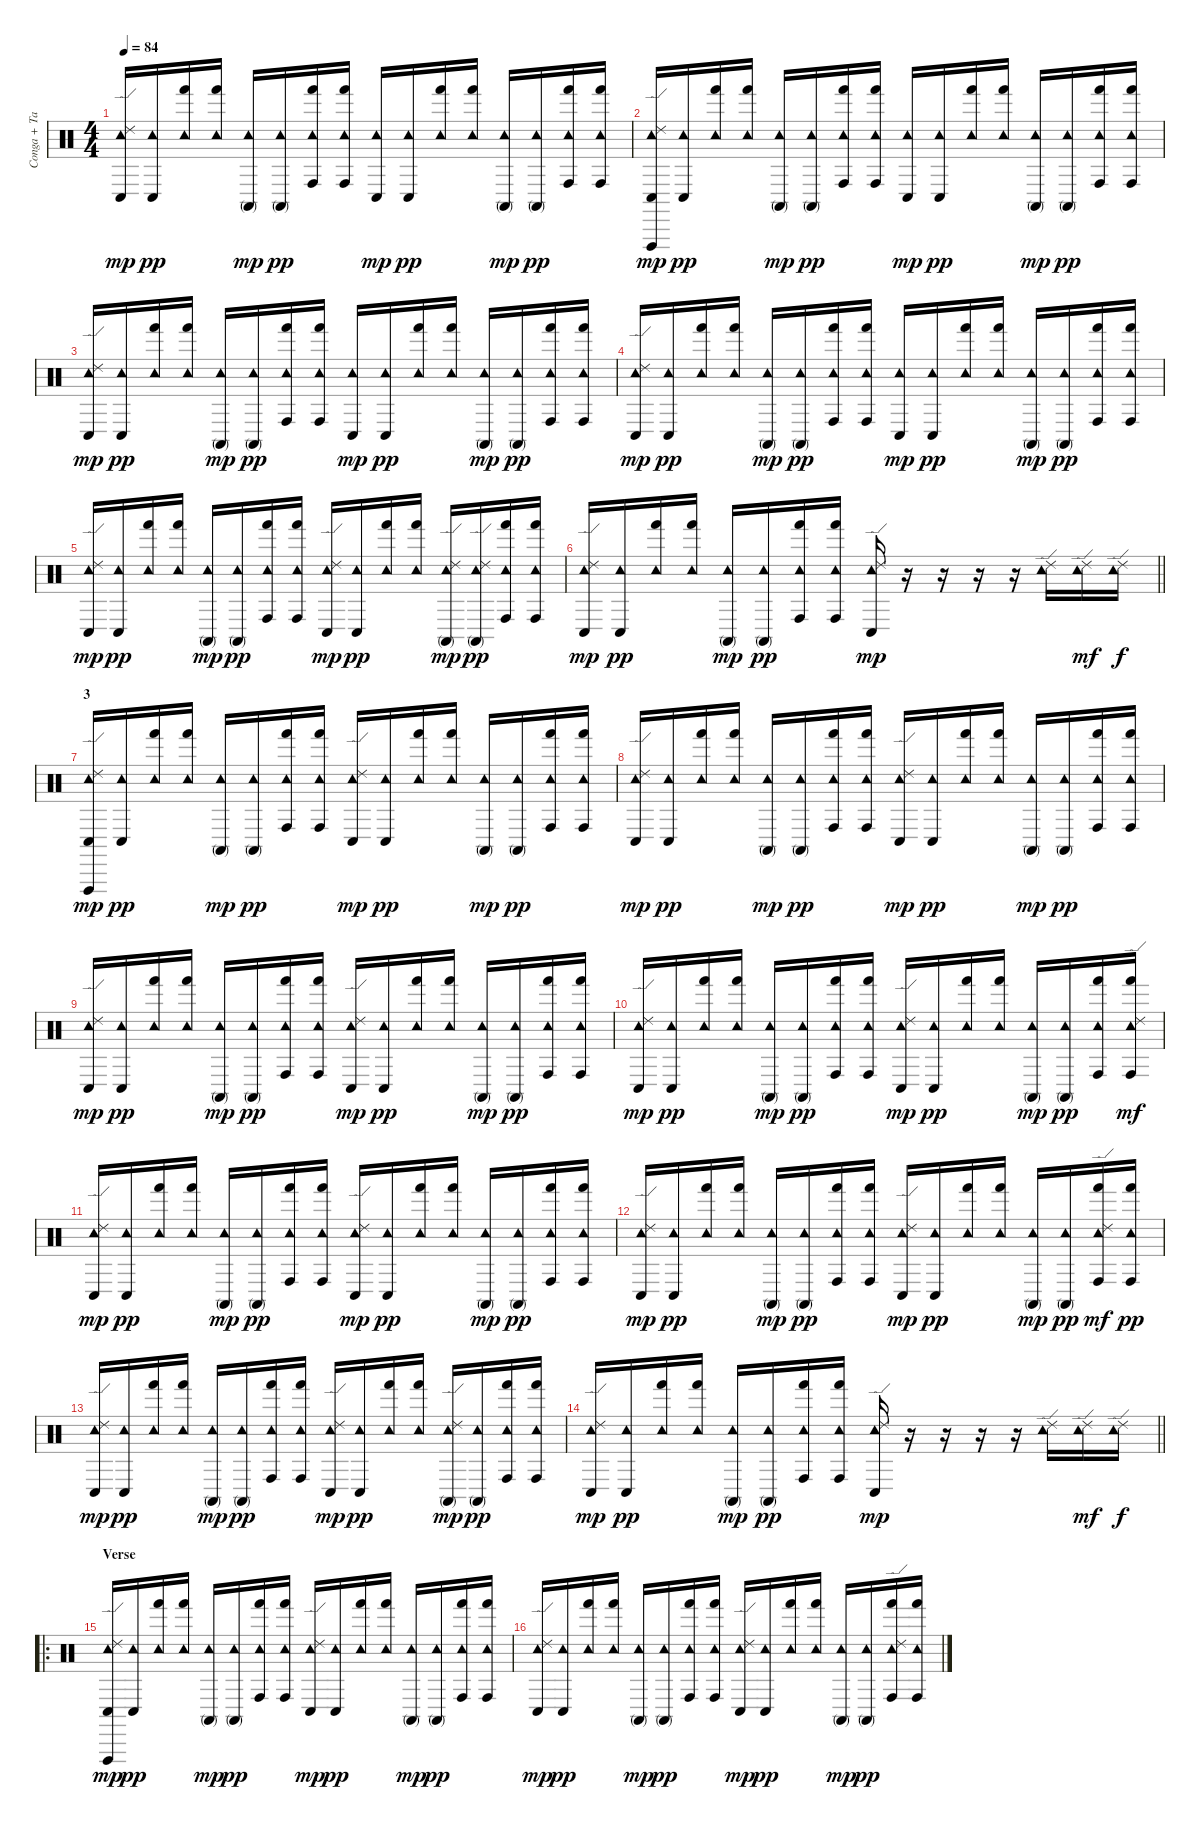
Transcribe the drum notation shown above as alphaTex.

\track ("Conga + Tambourine" "Conga + Ta") {instrument percussion}
\staff {score}
\articulation defaults
\ts (4 4)
\tempo 84
\clef neutral
\ks c
("Conga low (hit)" "Tambourine (hit)" "Ride (edge) 2").16{dy mp} ("Conga low (hit)" "Tambourine (hit)").16{dy pp} ("Hand (hit)" "Tambourine (hit)").16 ("Hand (hit)" "Tambourine (hit)").16 ("Conga high (mute)" "Tambourine (hit)").16{dy mp} ("Conga high (mute)" "Tambourine (hit)").16{dy pp} ("Conga high (hit)" "Hand (hit)" "Tambourine (hit)").16 ("Conga high (hit)" "Hand (hit)" "Tambourine (hit)").16 ("Conga low (hit)" "Tambourine (hit)").16{dy mp} ("Conga low (hit)" "Tambourine (hit)").16{dy pp} ("Hand (hit)" "Tambourine (hit)").16 ("Hand (hit)" "Tambourine (hit)").16 ("Conga high (mute)" "Tambourine (hit)").16{dy mp} ("Conga high (mute)" "Tambourine (hit)").16{dy pp} ("Conga high (hit)" "Hand (hit)" "Tambourine (hit)").16 ("Conga high (hit)" "Hand (hit)" "Tambourine (hit)").16 |
("Conga low (hit)" "Vibraslap (hit)" "Tambourine (hit)" "Ride (edge) 2").16{dy mp} ("Conga low (hit)" "Tambourine (hit)").16{dy pp} ("Hand (hit)" "Tambourine (hit)").16 ("Hand (hit)" "Tambourine (hit)").16 ("Conga high (mute)" "Tambourine (hit)").16{dy mp} ("Conga high (mute)" "Tambourine (hit)").16{dy pp} ("Conga high (hit)" "Hand (hit)" "Tambourine (hit)").16 ("Conga high (hit)" "Hand (hit)" "Tambourine (hit)").16 ("Conga low (hit)" "Tambourine (hit)").16{dy mp} ("Conga low (hit)" "Tambourine (hit)").16{dy pp} ("Hand (hit)" "Tambourine (hit)").16 ("Hand (hit)" "Tambourine (hit)").16 ("Conga high (mute)" "Tambourine (hit)").16{dy mp} ("Conga high (mute)" "Tambourine (hit)").16{dy pp} ("Conga high (hit)" "Hand (hit)" "Tambourine (hit)").16 ("Conga high (hit)" "Hand (hit)" "Tambourine (hit)").16 |
("Conga low (hit)" "Tambourine (hit)" "Ride (edge) 2").16{dy mp} ("Conga low (hit)" "Tambourine (hit)").16{dy pp} ("Hand (hit)" "Tambourine (hit)").16 ("Hand (hit)" "Tambourine (hit)").16 ("Conga high (mute)" "Tambourine (hit)").16{dy mp} ("Conga high (mute)" "Tambourine (hit)").16{dy pp} ("Conga high (hit)" "Hand (hit)" "Tambourine (hit)").16 ("Conga high (hit)" "Hand (hit)" "Tambourine (hit)").16 ("Conga low (hit)" "Tambourine (hit)").16{dy mp} ("Conga low (hit)" "Tambourine (hit)").16{dy pp} ("Hand (hit)" "Tambourine (hit)").16 ("Hand (hit)" "Tambourine (hit)").16 ("Conga high (mute)" "Tambourine (hit)").16{dy mp} ("Conga high (mute)" "Tambourine (hit)").16{dy pp} ("Conga high (hit)" "Hand (hit)" "Tambourine (hit)").16 ("Conga high (hit)" "Hand (hit)" "Tambourine (hit)").16 |
("Conga low (hit)" "Tambourine (hit)" "Ride (edge) 2").16{dy mp} ("Conga low (hit)" "Tambourine (hit)").16{dy pp} ("Hand (hit)" "Tambourine (hit)").16 ("Hand (hit)" "Tambourine (hit)").16 ("Conga high (mute)" "Tambourine (hit)").16{dy mp} ("Conga high (mute)" "Tambourine (hit)").16{dy pp} ("Conga high (hit)" "Hand (hit)" "Tambourine (hit)").16 ("Conga high (hit)" "Hand (hit)" "Tambourine (hit)").16 ("Conga low (hit)" "Tambourine (hit)").16{dy mp} ("Conga low (hit)" "Tambourine (hit)").16{dy pp} ("Hand (hit)" "Tambourine (hit)").16 ("Hand (hit)" "Tambourine (hit)").16 ("Conga high (mute)" "Tambourine (hit)").16{dy mp} ("Conga high (mute)" "Tambourine (hit)").16{dy pp} ("Conga high (hit)" "Hand (hit)" "Tambourine (hit)").16 ("Conga high (hit)" "Hand (hit)" "Tambourine (hit)").16 |
("Conga low (hit)" "Tambourine (hit)" "Ride (edge) 2").16{dy mp} ("Conga low (hit)" "Tambourine (hit)").16{dy pp} ("Hand (hit)" "Tambourine (hit)").16 ("Hand (hit)" "Tambourine (hit)").16 ("Conga high (mute)" "Tambourine (hit)").16{dy mp} ("Conga high (mute)" "Tambourine (hit)").16{dy pp} ("Conga high (hit)" "Hand (hit)" "Tambourine (hit)").16 ("Conga high (hit)" "Hand (hit)" "Tambourine (hit)").16 ("Conga low (hit)" "Tambourine (hit)" "Ride (edge) 2").16{dy mp} ("Conga low (hit)" "Tambourine (hit)").16{dy pp} ("Hand (hit)" "Tambourine (hit)").16 ("Hand (hit)" "Tambourine (hit)").16 ("Conga high (mute)" "Tambourine (hit)" "Ride (edge) 2").16{dy mp} ("Conga high (mute)" "Tambourine (hit)" "Ride (edge) 2").16{dy pp} ("Conga high (hit)" "Hand (hit)" "Tambourine (hit)").16 ("Conga high (hit)" "Hand (hit)" "Tambourine (hit)").16 |
\barLineRight lightlight
("Conga low (hit)" "Tambourine (hit)" "Ride (edge) 2").16{dy mp} ("Conga low (hit)" "Tambourine (hit)").16{dy pp} ("Hand (hit)" "Tambourine (hit)").16 ("Hand (hit)" "Tambourine (hit)").16 ("Conga high (mute)" "Tambourine (hit)").16{dy mp} ("Conga high (mute)" "Tambourine (hit)").16{dy pp} ("Conga high (hit)" "Hand (hit)" "Tambourine (hit)").16 ("Conga high (hit)" "Hand (hit)" "Tambourine (hit)").16 ("Conga low (hit)" "Tambourine (hit)" "Ride (edge) 2").16{dy mp} r.16 r.16 r.16 r.16 ("Tambourine (hit)" "Ride (edge) 2").16 ("Tambourine (hit)" "Ride (edge) 2").16{dy mf} ("Tambourine (hit)" "Ride (edge) 2").16{dy f} |
\section ("" "3")
("Conga low (hit)" "Vibraslap (hit)" "Tambourine (hit)" "Ride (edge) 2").16{dy mp} ("Conga low (hit)" "Tambourine (hit)").16{dy pp} ("Hand (hit)" "Tambourine (hit)").16 ("Hand (hit)" "Tambourine (hit)").16 ("Conga high (mute)" "Tambourine (hit)").16{dy mp} ("Conga high (mute)" "Tambourine (hit)").16{dy pp} ("Conga high (hit)" "Hand (hit)" "Tambourine (hit)").16 ("Conga high (hit)" "Hand (hit)" "Tambourine (hit)").16 ("Conga low (hit)" "Tambourine (hit)" "Ride (edge) 2").16{dy mp} ("Conga low (hit)" "Tambourine (hit)").16{dy pp} ("Hand (hit)" "Tambourine (hit)").16 ("Hand (hit)" "Tambourine (hit)").16 ("Conga high (mute)" "Tambourine (hit)").16{dy mp} ("Conga high (mute)" "Tambourine (hit)").16{dy pp} ("Conga high (hit)" "Hand (hit)" "Tambourine (hit)").16 ("Conga high (hit)" "Hand (hit)" "Tambourine (hit)").16 |
("Conga low (hit)" "Tambourine (hit)" "Ride (edge) 2").16{dy mp} ("Conga low (hit)" "Tambourine (hit)").16{dy pp} ("Hand (hit)" "Tambourine (hit)").16 ("Hand (hit)" "Tambourine (hit)").16 ("Conga high (mute)" "Tambourine (hit)").16{dy mp} ("Conga high (mute)" "Tambourine (hit)").16{dy pp} ("Conga high (hit)" "Hand (hit)" "Tambourine (hit)").16 ("Conga high (hit)" "Hand (hit)" "Tambourine (hit)").16 ("Conga low (hit)" "Tambourine (hit)" "Ride (edge) 2").16{dy mp} ("Conga low (hit)" "Tambourine (hit)").16{dy pp} ("Hand (hit)" "Tambourine (hit)").16 ("Hand (hit)" "Tambourine (hit)").16 ("Conga high (mute)" "Tambourine (hit)").16{dy mp} ("Conga high (mute)" "Tambourine (hit)").16{dy pp} ("Conga high (hit)" "Hand (hit)" "Tambourine (hit)").16 ("Conga high (hit)" "Hand (hit)" "Tambourine (hit)").16 |
("Conga low (hit)" "Tambourine (hit)" "Ride (edge) 2").16{dy mp} ("Conga low (hit)" "Tambourine (hit)").16{dy pp} ("Hand (hit)" "Tambourine (hit)").16 ("Hand (hit)" "Tambourine (hit)").16 ("Conga high (mute)" "Tambourine (hit)").16{dy mp} ("Conga high (mute)" "Tambourine (hit)").16{dy pp} ("Conga high (hit)" "Hand (hit)" "Tambourine (hit)").16 ("Conga high (hit)" "Hand (hit)" "Tambourine (hit)").16 ("Conga low (hit)" "Tambourine (hit)" "Ride (edge) 2").16{dy mp} ("Conga low (hit)" "Tambourine (hit)").16{dy pp} ("Hand (hit)" "Tambourine (hit)").16 ("Hand (hit)" "Tambourine (hit)").16 ("Conga high (mute)" "Tambourine (hit)").16{dy mp} ("Conga high (mute)" "Tambourine (hit)").16{dy pp} ("Conga high (hit)" "Hand (hit)" "Tambourine (hit)").16 ("Conga high (hit)" "Hand (hit)" "Tambourine (hit)").16 |
("Conga low (hit)" "Tambourine (hit)" "Ride (edge) 2").16{dy mp} ("Conga low (hit)" "Tambourine (hit)").16{dy pp} ("Hand (hit)" "Tambourine (hit)").16 ("Hand (hit)" "Tambourine (hit)").16 ("Conga high (mute)" "Tambourine (hit)").16{dy mp} ("Conga high (mute)" "Tambourine (hit)").16{dy pp} ("Conga high (hit)" "Hand (hit)" "Tambourine (hit)").16 ("Conga high (hit)" "Hand (hit)" "Tambourine (hit)").16 ("Conga low (hit)" "Tambourine (hit)" "Ride (edge) 2").16{dy mp} ("Conga low (hit)" "Tambourine (hit)").16{dy pp} ("Hand (hit)" "Tambourine (hit)").16 ("Hand (hit)" "Tambourine (hit)").16 ("Conga high (mute)" "Tambourine (hit)").16{dy mp} ("Conga high (mute)" "Tambourine (hit)").16{dy pp} ("Conga high (hit)" "Hand (hit)" "Tambourine (hit)").16 ("Conga high (hit)" "Hand (hit)" "Tambourine (hit)" "Ride (edge) 2").16{dy mf} |
("Conga low (hit)" "Tambourine (hit)" "Ride (edge) 2").16{dy mp} ("Conga low (hit)" "Tambourine (hit)").16{dy pp} ("Hand (hit)" "Tambourine (hit)").16 ("Hand (hit)" "Tambourine (hit)").16 ("Conga high (mute)" "Tambourine (hit)").16{dy mp} ("Conga high (mute)" "Tambourine (hit)").16{dy pp} ("Conga high (hit)" "Hand (hit)" "Tambourine (hit)").16 ("Conga high (hit)" "Hand (hit)" "Tambourine (hit)").16 ("Conga low (hit)" "Tambourine (hit)" "Ride (edge) 2").16{dy mp} ("Conga low (hit)" "Tambourine (hit)").16{dy pp} ("Hand (hit)" "Tambourine (hit)").16 ("Hand (hit)" "Tambourine (hit)").16 ("Conga high (mute)" "Tambourine (hit)").16{dy mp} ("Conga high (mute)" "Tambourine (hit)").16{dy pp} ("Conga high (hit)" "Hand (hit)" "Tambourine (hit)").16 ("Conga high (hit)" "Hand (hit)" "Tambourine (hit)").16 |
("Conga low (hit)" "Tambourine (hit)" "Ride (edge) 2").16{dy mp} ("Conga low (hit)" "Tambourine (hit)").16{dy pp} ("Hand (hit)" "Tambourine (hit)").16 ("Hand (hit)" "Tambourine (hit)").16 ("Conga high (mute)" "Tambourine (hit)").16{dy mp} ("Conga high (mute)" "Tambourine (hit)").16{dy pp} ("Conga high (hit)" "Hand (hit)" "Tambourine (hit)").16 ("Conga high (hit)" "Hand (hit)" "Tambourine (hit)").16 ("Conga low (hit)" "Tambourine (hit)" "Ride (edge) 2").16{dy mp} ("Conga low (hit)" "Tambourine (hit)").16{dy pp} ("Hand (hit)" "Tambourine (hit)").16 ("Hand (hit)" "Tambourine (hit)").16 ("Conga high (mute)" "Tambourine (hit)").16{dy mp} ("Conga high (mute)" "Tambourine (hit)").16{dy pp} ("Conga high (hit)" "Hand (hit)" "Tambourine (hit)" "Ride (edge) 2").16{dy mf} ("Conga high (hit)" "Hand (hit)" "Tambourine (hit)").16{dy pp} |
("Conga low (hit)" "Tambourine (hit)" "Ride (edge) 2").16{dy mp} ("Conga low (hit)" "Tambourine (hit)").16{dy pp} ("Hand (hit)" "Tambourine (hit)").16 ("Hand (hit)" "Tambourine (hit)").16 ("Conga high (mute)" "Tambourine (hit)").16{dy mp} ("Conga high (mute)" "Tambourine (hit)").16{dy pp} ("Conga high (hit)" "Hand (hit)" "Tambourine (hit)").16 ("Conga high (hit)" "Hand (hit)" "Tambourine (hit)").16 ("Conga low (hit)" "Tambourine (hit)" "Ride (edge) 2").16{dy mp} ("Conga low (hit)" "Tambourine (hit)").16{dy pp} ("Hand (hit)" "Tambourine (hit)").16 ("Hand (hit)" "Tambourine (hit)").16 ("Conga high (mute)" "Tambourine (hit)" "Ride (edge) 2").16{dy mp} ("Conga high (mute)" "Tambourine (hit)").16{dy pp} ("Conga high (hit)" "Hand (hit)" "Tambourine (hit)").16 ("Conga high (hit)" "Hand (hit)" "Tambourine (hit)").16 |
\barLineRight lightlight
("Conga low (hit)" "Tambourine (hit)" "Ride (edge) 2").16{dy mp} ("Conga low (hit)" "Tambourine (hit)").16{dy pp} ("Hand (hit)" "Tambourine (hit)").16 ("Hand (hit)" "Tambourine (hit)").16 ("Conga high (mute)" "Tambourine (hit)").16{dy mp} ("Conga high (mute)" "Tambourine (hit)").16{dy pp} ("Conga high (hit)" "Hand (hit)" "Tambourine (hit)").16 ("Conga high (hit)" "Hand (hit)" "Tambourine (hit)").16 ("Conga low (hit)" "Tambourine (hit)" "Ride (edge) 2").16{dy mp} r.16 r.16 r.16 r.16 ("Tambourine (hit)" "Ride (edge) 2").16 ("Tambourine (hit)" "Ride (edge) 2").16{dy mf} ("Tambourine (hit)" "Ride (edge) 2").16{dy f} |
\ro
\section ("" "Verse")
("Conga low (hit)" "Vibraslap (hit)" "Tambourine (hit)" "Ride (edge) 2").16{dy mp} ("Conga low (hit)" "Tambourine (hit)").16{dy pp} ("Hand (hit)" "Tambourine (hit)").16 ("Hand (hit)" "Tambourine (hit)").16 ("Conga high (mute)" "Tambourine (hit)").16{dy mp} ("Conga high (mute)" "Tambourine (hit)").16{dy pp} ("Conga high (hit)" "Hand (hit)" "Tambourine (hit)").16 ("Conga high (hit)" "Hand (hit)" "Tambourine (hit)").16 ("Conga low (hit)" "Tambourine (hit)" "Ride (edge) 2").16{dy mp} ("Conga low (hit)" "Tambourine (hit)").16{dy pp} ("Hand (hit)" "Tambourine (hit)").16 ("Hand (hit)" "Tambourine (hit)").16 ("Conga high (mute)" "Tambourine (hit)").16{dy mp} ("Conga high (mute)" "Tambourine (hit)").16{dy pp} ("Conga high (hit)" "Hand (hit)" "Tambourine (hit)").16 ("Conga high (hit)" "Hand (hit)" "Tambourine (hit)").16 |
("Conga low (hit)" "Tambourine (hit)" "Ride (edge) 2").16{dy mp} ("Conga low (hit)" "Tambourine (hit)").16{dy pp} ("Hand (hit)" "Tambourine (hit)").16 ("Hand (hit)" "Tambourine (hit)").16 ("Conga high (mute)" "Tambourine (hit)").16{dy mp} ("Conga high (mute)" "Tambourine (hit)").16{dy pp} ("Conga high (hit)" "Hand (hit)" "Tambourine (hit)").16 ("Conga high (hit)" "Hand (hit)" "Tambourine (hit)").16 ("Conga low (hit)" "Tambourine (hit)" "Ride (edge) 2").16{dy mp} ("Conga low (hit)" "Tambourine (hit)").16{dy pp} ("Hand (hit)" "Tambourine (hit)").16 ("Hand (hit)" "Tambourine (hit)").16 ("Conga high (mute)" "Tambourine (hit)").16{dy mp} ("Conga high (mute)" "Tambourine (hit)").16{dy pp} ("Conga high (hit)" "Hand (hit)" "Tambourine (hit)" "Ride (edge) 2").16 ("Conga high (hit)" "Hand (hit)" "Tambourine (hit)").16
